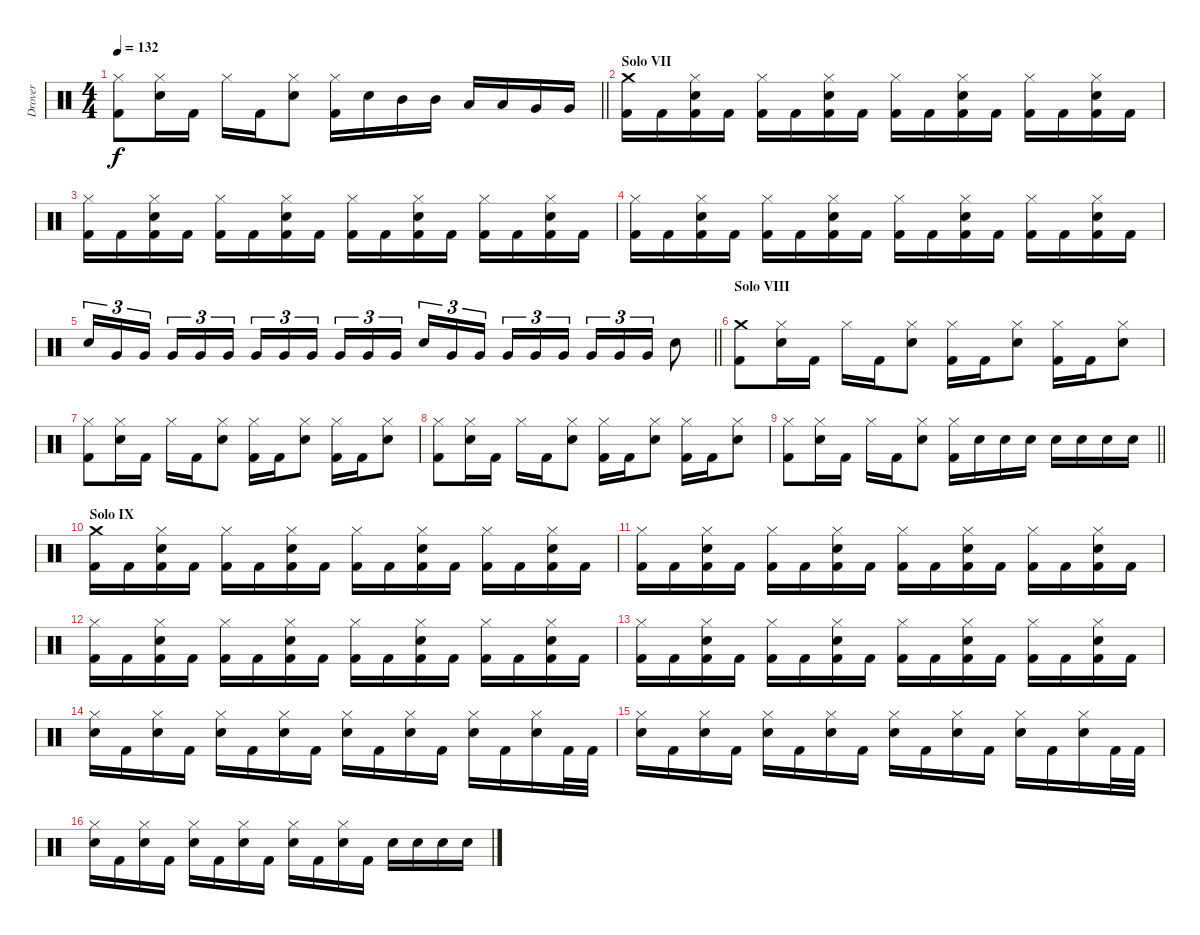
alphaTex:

\track ("Drover" "Drover") {instrument percussion}
\staff {score}
\articulation defaults
\ts (4 4)
\tempo 132
\clef neutral
\barLineRight lightlight
\ks c
("Hi-Hat (closed)" "Kick (hit) 2").8{dy f} ("Hi-Hat (closed)" "Snare (hit) 2").16 "Kick (hit) 2".16 "Hi-Hat (closed)".16 "Kick (hit) 2".16 ("Hi-Hat (closed)" "Snare (hit) 2").8 ("Hi-Hat (closed)" "Kick (hit) 2").16 "Snare (hit) 2".16 "Mid Tom (hit)".16 "Mid Tom (hit)".16 "Low Tom (hit)".16 "Low Tom (hit)".16 "Very Low Tom (hit)".16 "Very Low Tom (hit)".16 |
\section ("" "Solo VII")
("Crash medium (hit)" "Kick (hit) 2").16 "Kick (hit) 2".16 ("Hi-Hat (closed)" "Snare (hit) 2" "Kick (hit) 2").16 "Kick (hit) 2".16 ("Hi-Hat (closed)" "Kick (hit) 2").16 "Kick (hit) 2".16 ("Hi-Hat (closed)" "Snare (hit) 2" "Kick (hit) 2").16 "Kick (hit) 2".16 ("Hi-Hat (closed)" "Kick (hit) 2").16 "Kick (hit) 2".16 ("Hi-Hat (closed)" "Snare (hit) 2" "Kick (hit) 2").16 "Kick (hit) 2".16 ("Hi-Hat (closed)" "Kick (hit) 2").16 "Kick (hit) 2".16 ("Hi-Hat (closed)" "Snare (hit) 2" "Kick (hit) 2").16 "Kick (hit) 2".16 |
("Hi-Hat (closed)" "Kick (hit) 2").16 "Kick (hit) 2".16 ("Hi-Hat (closed)" "Snare (hit) 2" "Kick (hit) 2").16 "Kick (hit) 2".16 ("Hi-Hat (closed)" "Kick (hit) 2").16 "Kick (hit) 2".16 ("Hi-Hat (closed)" "Snare (hit) 2" "Kick (hit) 2").16 "Kick (hit) 2".16 ("Hi-Hat (closed)" "Kick (hit) 2").16 "Kick (hit) 2".16 ("Hi-Hat (closed)" "Snare (hit) 2" "Kick (hit) 2").16 "Kick (hit) 2".16 ("Hi-Hat (closed)" "Kick (hit) 2").16 "Kick (hit) 2".16 ("Hi-Hat (closed)" "Snare (hit) 2" "Kick (hit) 2").16 "Kick (hit) 2".16 |
("Hi-Hat (closed)" "Kick (hit) 2").16 "Kick (hit) 2".16 ("Hi-Hat (closed)" "Snare (hit) 2" "Kick (hit) 2").16 "Kick (hit) 2".16 ("Hi-Hat (closed)" "Kick (hit) 2").16 "Kick (hit) 2".16 ("Hi-Hat (closed)" "Snare (hit) 2" "Kick (hit) 2").16 "Kick (hit) 2".16 ("Hi-Hat (closed)" "Kick (hit) 2").16 "Kick (hit) 2".16 ("Hi-Hat (closed)" "Snare (hit) 2" "Kick (hit) 2").16 "Kick (hit) 2".16 ("Hi-Hat (closed)" "Kick (hit) 2").16 "Kick (hit) 2".16 ("Hi-Hat (closed)" "Snare (hit) 2" "Kick (hit) 2").16 "Kick (hit) 2".16 |
\barLineRight lightlight "Snare (hit) 2".16{tu (3 2)} "Very Low Tom (hit)".16{tu (3 2)} "Very Low Tom (hit)".16{tu (3 2) beam splitsecondary} "Very Low Tom (hit)".16{tu (3 2)} "Very Low Tom (hit)".16{tu (3 2)} "Very Low Tom (hit)".16{tu (3 2)} "Very Low Tom (hit)".16{tu (3 2)} "Very Low Tom (hit)".16{tu (3 2)} "Very Low Tom (hit)".16{tu (3 2) beam splitsecondary} "Very Low Tom (hit)".16{tu (3 2)} "Very Low Tom (hit)".16{tu (3 2)} "Very Low Tom (hit)".16{tu (3 2)} "Snare (hit) 2".16{tu (3 2)} "Very Low Tom (hit)".16{tu (3 2)} "Very Low Tom (hit)".16{tu (3 2) beam splitsecondary} "Very Low Tom (hit)".16{tu (3 2)} "Very Low Tom (hit)".16{tu (3 2)} "Very Low Tom (hit)".16{tu (3 2)} "Very Low Tom (hit)".16{tu (3 2)} "Very Low Tom (hit)".16{tu (3 2)} "Very Low Tom (hit)".16{tu (3 2)} "Snare (hit) 2".8
|
\section ("" "Solo VIII")
("Crash medium (hit)" "Kick (hit) 2").8 ("Hi-Hat (closed)" "Snare (hit) 2").16 "Kick (hit) 2".16 "Hi-Hat (closed)".16 "Kick (hit) 2".16 ("Hi-Hat (closed)" "Snare (hit) 2").8 ("Hi-Hat (closed)" "Kick (hit) 2").16 "Kick (hit) 2".16 ("Hi-Hat (closed)" "Snare (hit) 2").8 ("Hi-Hat (closed)" "Kick (hit) 2").16 "Kick (hit) 2".16 ("Hi-Hat (closed)" "Snare (hit) 2").8 |
("Hi-Hat (closed)" "Kick (hit) 2").8 ("Hi-Hat (closed)" "Snare (hit) 2").16 "Kick (hit) 2".16 "Hi-Hat (closed)".16 "Kick (hit) 2".16 ("Hi-Hat (closed)" "Snare (hit) 2").8 ("Hi-Hat (closed)" "Kick (hit) 2").16 "Kick (hit) 2".16 ("Hi-Hat (closed)" "Snare (hit) 2").8 ("Hi-Hat (closed)" "Kick (hit) 2").16 "Kick (hit) 2".16 ("Hi-Hat (closed)" "Snare (hit) 2").8 |
("Hi-Hat (closed)" "Kick (hit) 2").8 ("Hi-Hat (closed)" "Snare (hit) 2").16 "Kick (hit) 2".16 "Hi-Hat (closed)".16 "Kick (hit) 2".16 ("Hi-Hat (closed)" "Snare (hit) 2").8 ("Hi-Hat (closed)" "Kick (hit) 2").16 "Kick (hit) 2".16 ("Hi-Hat (closed)" "Snare (hit) 2").8 ("Hi-Hat (closed)" "Kick (hit) 2").16 "Kick (hit) 2".16 ("Hi-Hat (closed)" "Snare (hit) 2").8 |
\barLineRight lightlight
("Hi-Hat (closed)" "Kick (hit) 2").8 ("Hi-Hat (closed)" "Snare (hit) 2").16 "Kick (hit) 2".16 "Hi-Hat (closed)".16 "Kick (hit) 2".16 ("Hi-Hat (closed)" "Snare (hit) 2").8 ("Hi-Hat (closed)" "Kick (hit) 2").16 "Snare (hit) 2".16 "Snare (hit) 2".16 "Snare (hit) 2".16 "Snare (hit) 2".16 "Snare (hit) 2".16 "Snare (hit) 2".16 "Snare (hit) 2".16 |
\section ("" "Solo IX")
("Crash medium (hit)" "Kick (hit) 2").16 "Kick (hit) 2".16 ("Hi-Hat (closed)" "Snare (hit) 2" "Kick (hit) 2").16 "Kick (hit) 2".16 ("Hi-Hat (closed)" "Kick (hit) 2").16 "Kick (hit) 2".16 ("Hi-Hat (closed)" "Snare (hit) 2" "Kick (hit) 2").16 "Kick (hit) 2".16 ("Hi-Hat (closed)" "Kick (hit) 2").16 "Kick (hit) 2".16 ("Hi-Hat (closed)" "Snare (hit) 2" "Kick (hit) 2").16 "Kick (hit) 2".16 ("Hi-Hat (closed)" "Kick (hit) 2").16 "Kick (hit) 2".16 ("Hi-Hat (closed)" "Snare (hit) 2" "Kick (hit) 2").16 "Kick (hit) 2".16 |
("Hi-Hat (closed)" "Kick (hit) 2").16 "Kick (hit) 2".16 ("Hi-Hat (closed)" "Snare (hit) 2" "Kick (hit) 2").16 "Kick (hit) 2".16 ("Hi-Hat (closed)" "Kick (hit) 2").16 "Kick (hit) 2".16 ("Hi-Hat (closed)" "Snare (hit) 2" "Kick (hit) 2").16 "Kick (hit) 2".16 ("Hi-Hat (closed)" "Kick (hit) 2").16 "Kick (hit) 2".16 ("Hi-Hat (closed)" "Snare (hit) 2" "Kick (hit) 2").16 "Kick (hit) 2".16 ("Hi-Hat (closed)" "Kick (hit) 2").16 "Kick (hit) 2".16 ("Hi-Hat (closed)" "Snare (hit) 2" "Kick (hit) 2").16 "Kick (hit) 2".16 |
("Hi-Hat (closed)" "Kick (hit) 2").16 "Kick (hit) 2".16 ("Hi-Hat (closed)" "Snare (hit) 2" "Kick (hit) 2").16 "Kick (hit) 2".16 ("Hi-Hat (closed)" "Kick (hit) 2").16 "Kick (hit) 2".16 ("Hi-Hat (closed)" "Snare (hit) 2" "Kick (hit) 2").16 "Kick (hit) 2".16 ("Hi-Hat (closed)" "Kick (hit) 2").16 "Kick (hit) 2".16 ("Hi-Hat (closed)" "Snare (hit) 2" "Kick (hit) 2").16 "Kick (hit) 2".16 ("Hi-Hat (closed)" "Kick (hit) 2").16 "Kick (hit) 2".16 ("Hi-Hat (closed)" "Snare (hit) 2" "Kick (hit) 2").16 "Kick (hit) 2".16 |
("Hi-Hat (closed)" "Kick (hit) 2").16 "Kick (hit) 2".16 ("Hi-Hat (closed)" "Snare (hit) 2" "Kick (hit) 2").16 "Kick (hit) 2".16 ("Hi-Hat (closed)" "Kick (hit) 2").16 "Kick (hit) 2".16 ("Hi-Hat (closed)" "Snare (hit) 2" "Kick (hit) 2").16 "Kick (hit) 2".16 ("Hi-Hat (closed)" "Kick (hit) 2").16 "Kick (hit) 2".16 ("Hi-Hat (closed)" "Snare (hit) 2" "Kick (hit) 2").16 "Kick (hit) 2".16 ("Hi-Hat (closed)" "Kick (hit) 2").16 "Kick (hit) 2".16 ("Hi-Hat (closed)" "Snare (hit) 2" "Kick (hit) 2").16 "Kick (hit) 2".16 |
("Hi-Hat (closed)" "Snare (hit) 2").16 "Kick (hit) 2".16 ("Hi-Hat (closed)" "Snare (hit) 2").16 "Kick (hit) 2".16 ("Hi-Hat (closed)" "Snare (hit) 2").16 "Kick (hit) 2".16 ("Hi-Hat (closed)" "Snare (hit) 2").16 "Kick (hit) 2".16 ("Hi-Hat (closed)" "Snare (hit) 2").16 "Kick (hit) 2".16 ("Hi-Hat (closed)" "Snare (hit) 2").16 "Kick (hit) 2".16 ("Hi-Hat (closed)" "Snare (hit) 2").16 "Kick (hit) 2".16 ("Hi-Hat (closed)" "Snare (hit) 2").16 "Kick (hit) 2".32 "Kick (hit) 2".32 |
("Hi-Hat (closed)" "Snare (hit) 2").16 "Kick (hit) 2".16 ("Hi-Hat (closed)" "Snare (hit) 2").16 "Kick (hit) 2".16 ("Hi-Hat (closed)" "Snare (hit) 2").16 "Kick (hit) 2".16 ("Hi-Hat (closed)" "Snare (hit) 2").16 "Kick (hit) 2".16 ("Hi-Hat (closed)" "Snare (hit) 2").16 "Kick (hit) 2".16 ("Hi-Hat (closed)" "Snare (hit) 2").16 "Kick (hit) 2".16 ("Hi-Hat (closed)" "Snare (hit) 2").16 "Kick (hit) 2".16 ("Hi-Hat (closed)" "Snare (hit) 2").16 "Kick (hit) 2".32 "Kick (hit) 2".32 |
("Hi-Hat (closed)" "Snare (hit) 2").16 "Kick (hit) 2".16 ("Hi-Hat (closed)" "Snare (hit) 2").16 "Kick (hit) 2".16 ("Hi-Hat (closed)" "Snare (hit) 2").16 "Kick (hit) 2".16 ("Hi-Hat (closed)" "Snare (hit) 2").16 "Kick (hit) 2".16 ("Hi-Hat (closed)" "Snare (hit) 2").16 "Kick (hit) 2".16 ("Hi-Hat (closed)" "Snare (hit) 2").16 "Kick (hit) 2".16 "Snare (hit) 2".16 "Snare (hit) 2".16 "Snare (hit) 2".16 "Snare (hit) 2".16
